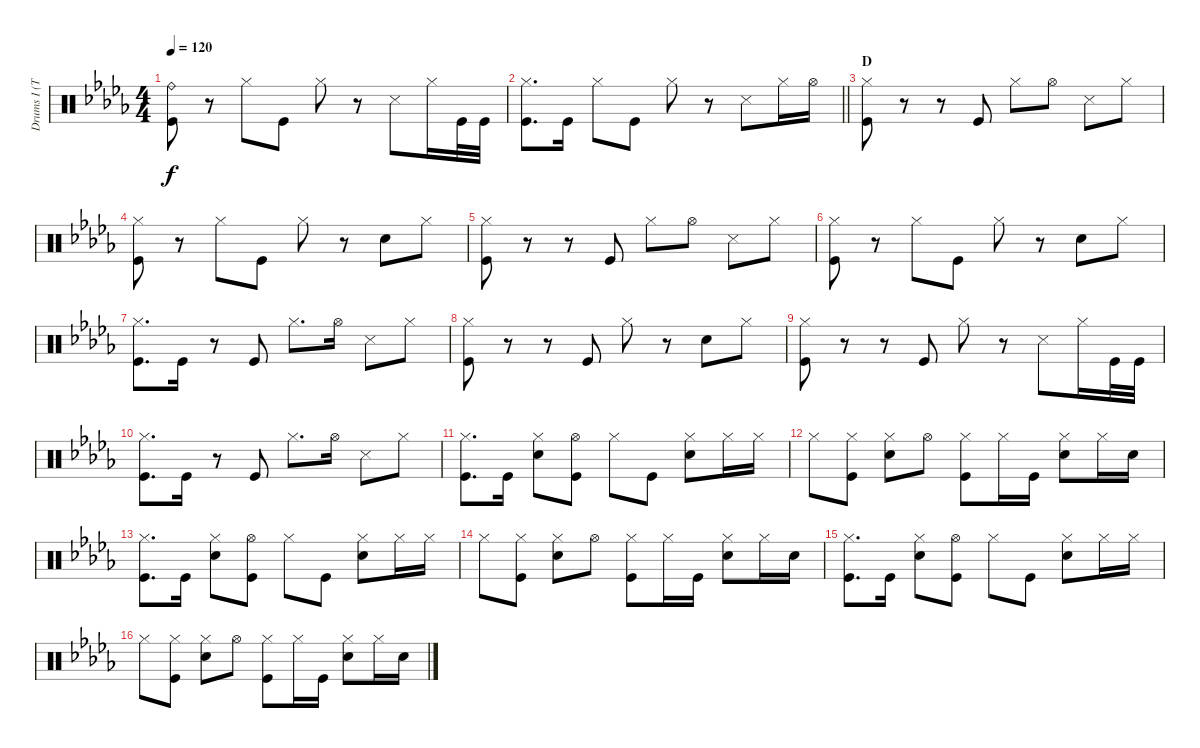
\track ("Drums I (Tainaka Ritsu)" "Drums I (T") {instrument percussion}
\staff {score}
\articulation defaults
\ts (4 4)
\tempo 120
\clef neutral
\ks db
("Ride (bell)" "Kick (hit)").8{dy f} r.8 "Hi-Hat (closed)".8 "Kick (hit)".8 "Hi-Hat (closed)".8 r.8 "Snare (side stick) 3".8 "Hi-Hat (closed)".16 "Kick (hit)".32 "Kick (hit)".32 |
\barLineRight lightlight
("Hi-Hat (closed)" "Kick (hit)").8{d} "Kick (hit)".16 "Hi-Hat (closed)".8 "Kick (hit)".8 "Hi-Hat (closed)".8 r.8 "Snare (side stick) 3".8 "Hi-Hat (closed)".16 "Hi-Hat (open)".16 |
\section ("" "D")
("Hi-Hat (closed)" "Kick (hit)").8 r.8 r.8 "Kick (hit)".8 "Hi-Hat (closed)".8 "Hi-Hat (open)".8 "Snare (side stick) 3".8 "Hi-Hat (closed)".8 |
("Hi-Hat (closed)" "Kick (hit)").8 r.8 "Hi-Hat (closed)".8 "Kick (hit)".8 "Hi-Hat (closed)".8 r.8 "Snare (hit) 2".8 "Hi-Hat (closed)".8 |
("Hi-Hat (closed)" "Kick (hit)").8 r.8 r.8 "Kick (hit)".8 "Hi-Hat (closed)".8 "Hi-Hat (open)".8 "Snare (side stick) 3".8 "Hi-Hat (closed)".8 |
("Hi-Hat (closed)" "Kick (hit)").8 r.8 "Hi-Hat (closed)".8 "Kick (hit)".8 "Hi-Hat (closed)".8 r.8 "Snare (hit) 2".8 "Hi-Hat (closed)".8 |
("Hi-Hat (closed)" "Kick (hit)").8{d} "Kick (hit)".16 r.8 "Kick (hit)".8 "Hi-Hat (closed)".8{d} "Hi-Hat (open)".16 "Snare (side stick) 3".8 "Hi-Hat (closed)".8 |
("Hi-Hat (closed)" "Kick (hit)").8 r.8 r.8 "Kick (hit)".8 "Hi-Hat (closed)".8 r.8 "Snare (hit) 2".8 "Hi-Hat (closed)".8 |
("Hi-Hat (closed)" "Kick (hit)").8 r.8 r.8 "Kick (hit)".8 "Hi-Hat (closed)".8 r.8 "Snare (side stick) 3".8 "Hi-Hat (closed)".16 "Kick (hit)".32 "Kick (hit)".32 |
("Hi-Hat (closed)" "Kick (hit)").8{d} "Kick (hit)".16 r.8 "Kick (hit)".8 "Hi-Hat (closed)".8{d} "Hi-Hat (open)".16 "Snare (side stick) 3".8 "Hi-Hat (closed)".8 |
("Hi-Hat (closed)" "Kick (hit)").8{d} "Kick (hit)".16 ("Hi-Hat (closed)" "Snare (hit) 2").8 ("Hi-Hat (open)" "Kick (hit)").8 "Hi-Hat (closed)".8 "Kick (hit)".8 ("Hi-Hat (closed)" "Snare (hit) 2").8 "Hi-Hat (closed)".16 "Hi-Hat (closed)".16 |
"Hi-Hat (closed)".8 ("Hi-Hat (closed)" "Kick (hit)").8 ("Hi-Hat (closed)" "Snare (hit) 2").8 "Hi-Hat (open)".8 ("Hi-Hat (closed)" "Kick (hit)").8 "Hi-Hat (closed)".16 "Kick (hit)".16 ("Hi-Hat (closed)" "Snare (hit) 2").8 "Hi-Hat (closed)".16 "Snare (hit) 2".16 |
("Hi-Hat (closed)" "Kick (hit)").8{d} "Kick (hit)".16 ("Hi-Hat (closed)" "Snare (hit) 2").8 ("Hi-Hat (open)" "Kick (hit)").8 "Hi-Hat (closed)".8 "Kick (hit)".8 ("Hi-Hat (closed)" "Snare (hit) 2").8 "Hi-Hat (closed)".16 "Hi-Hat (closed)".16 |
"Hi-Hat (closed)".8 ("Hi-Hat (closed)" "Kick (hit)").8 ("Hi-Hat (closed)" "Snare (hit) 2").8 "Hi-Hat (open)".8 ("Hi-Hat (closed)" "Kick (hit)").8 "Hi-Hat (closed)".16 "Kick (hit)".16 ("Hi-Hat (closed)" "Snare (hit) 2").8 "Hi-Hat (closed)".16 "Snare (hit) 2".16 |
("Hi-Hat (closed)" "Kick (hit)").8{d} "Kick (hit)".16 ("Hi-Hat (closed)" "Snare (hit) 2").8 ("Hi-Hat (open)" "Kick (hit)").8 "Hi-Hat (closed)".8 "Kick (hit)".8 ("Hi-Hat (closed)" "Snare (hit) 2").8 "Hi-Hat (closed)".16 "Hi-Hat (closed)".16 |
"Hi-Hat (closed)".8 ("Hi-Hat (closed)" "Kick (hit)").8 ("Hi-Hat (closed)" "Snare (hit) 2").8 "Hi-Hat (open)".8 ("Hi-Hat (closed)" "Kick (hit)").8 "Hi-Hat (closed)".16 "Kick (hit)".16 ("Hi-Hat (closed)" "Snare (hit) 2").8 "Hi-Hat (closed)".16 "Snare (hit) 2".16
